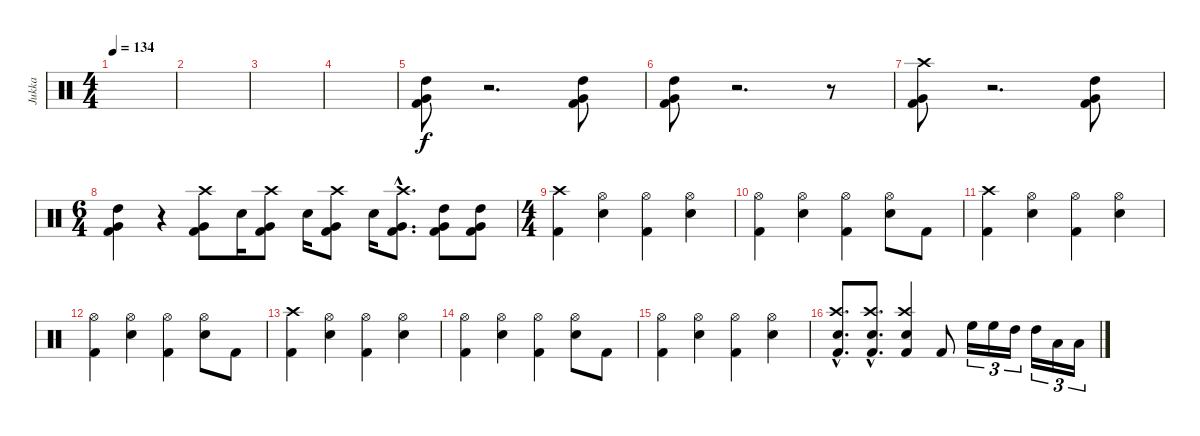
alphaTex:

\track ("Jukka" "Jukka") {instrument percussion}
\staff {score}
\articulation defaults
\ts (4 4)
\tempo 134
\clef neutral
\ks c
|
|
|
|
("High Tom (hit)" "Kick (hit) 2" "Very Low Tom (hit)").8 r.2{d} ("High Tom (hit)" "Kick (hit) 2" "Very Low Tom (hit)").8 |
("High Tom (hit)" "Kick (hit) 2" "Very Low Tom (hit)").8 r.2{d} r.8 |
("Crash high (hit)" "Kick (hit) 2" "Very Low Tom (hit)").8 r.2{d} ("High Tom (hit)" "Kick (hit) 2" "Very Low Tom (hit)").8 |
\ts (6 4)
("High Tom (hit)" "Kick (hit) 2" "Very Low Tom (hit)").4 r.4 ("Crash high (hit)" "Kick (hit) 2" "Very Low Tom (hit)").8 "Electric Snare (hit)".16 ("Crash high (hit)" "Kick (hit) 2" "Very Low Tom (hit)").8 "Electric Snare (hit)".16 ("Crash high (hit)" "Kick (hit) 2" "Very Low Tom (hit)").8 "Electric Snare (hit)".16 ("Crash high (hit)"{hac} "Kick (hit) 2"{hac} "Very Low Tom (hit)"{hac}).8{d} ("High Tom (hit)" "Kick (hit) 2" "Very Low Tom (hit)").8 ("High Tom (hit)" "Kick (hit) 2" "Very Low Tom (hit)").8 |
\ts (4 4)
("Crash high (hit)" "Kick (hit) 2").4 ("Hi-Hat (open)" "Electric Snare (hit)").4 ("Hi-Hat (open)" "Kick (hit) 2").4 ("Hi-Hat (open)" "Electric Snare (hit)").4 |
("Hi-Hat (open)" "Kick (hit) 2").4 ("Hi-Hat (open)" "Electric Snare (hit)").4 ("Hi-Hat (open)" "Kick (hit) 2").4 ("Hi-Hat (open)" "Electric Snare (hit)").8 "Kick (hit) 2".8 |
("Crash high (hit)" "Kick (hit) 2").4 ("Hi-Hat (open)" "Electric Snare (hit)").4 ("Hi-Hat (open)" "Kick (hit) 2").4 ("Hi-Hat (open)" "Electric Snare (hit)").4 |
("Hi-Hat (open)" "Kick (hit) 2").4 ("Hi-Hat (open)" "Electric Snare (hit)").4 ("Hi-Hat (open)" "Kick (hit) 2").4 ("Hi-Hat (open)" "Electric Snare (hit)").8 "Kick (hit) 2".8 |
("Crash high (hit)" "Kick (hit) 2").4 ("Hi-Hat (open)" "Electric Snare (hit)").4 ("Hi-Hat (open)" "Kick (hit) 2").4 ("Hi-Hat (open)" "Electric Snare (hit)").4 |
("Hi-Hat (open)" "Kick (hit) 2").4 ("Hi-Hat (open)" "Electric Snare (hit)").4 ("Hi-Hat (open)" "Kick (hit) 2").4 ("Hi-Hat (open)" "Electric Snare (hit)").8 "Kick (hit) 2".8 |
("Hi-Hat (open)" "Kick (hit) 2").4 ("Hi-Hat (open)" "Electric Snare (hit)").4 ("Hi-Hat (open)" "Kick (hit) 2").4 ("Hi-Hat (open)" "Electric Snare (hit)").4 |
("Crash high (hit)"{hac} "Electric Snare (hit)"{hac} "Kick (hit) 2"{hac}).8{d} ("Crash high (hit)"{hac} "Electric Snare (hit)"{hac} "Kick (hit) 2"{hac}).8{d} ("Crash high (hit)" "Electric Snare (hit)" "Kick (hit) 2").4 "Kick (hit) 2".8 "High Floor Tom (hit)".16{tu (3 2)} "High Floor Tom (hit)".16{tu (3 2)} "High Tom (hit)".16{tu (3 2)} "High Tom (hit)".16{tu (3 2)} "Low Tom (hit)".16{tu (3 2)} "Low Tom (hit)".16{tu (3 2)}
